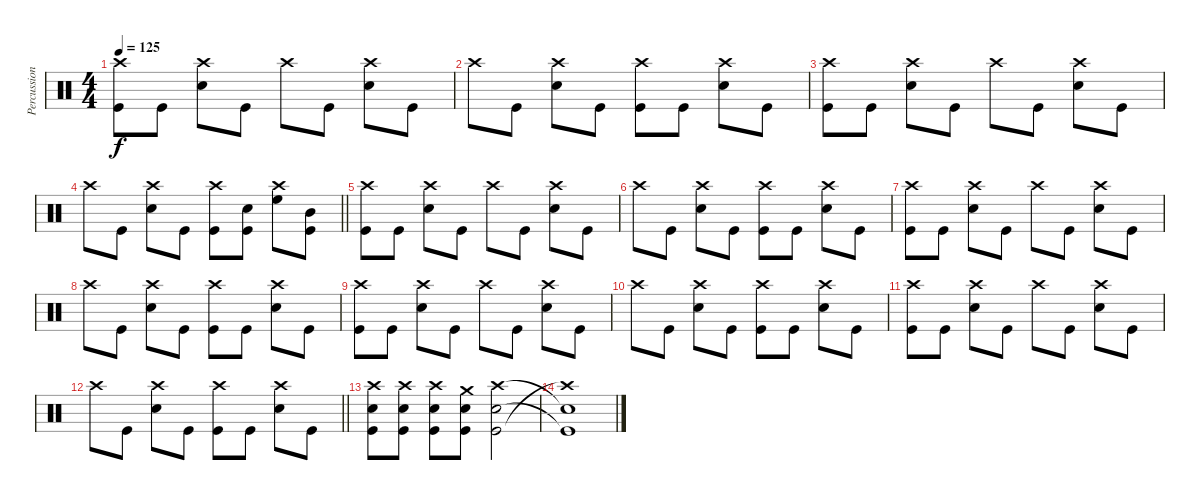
\track ("Percussion" "Percussion") {instrument percussion}
\staff {score}
\articulation defaults
\ts (4 4)
\tempo 125
\clef neutral
\ks c
("Crash high (hit)" "Kick (hit)").8{dy f} "Kick (hit)".8 ("Crash high (hit)" "Snare (hit) 2").8 "Kick (hit)".8 "Crash high (hit)".8 "Kick (hit)".8 ("Snare (hit) 2" "Crash high (hit)").8 "Kick (hit)".8 |
"Crash high (hit)".8 "Kick (hit)".8 ("Crash high (hit)" "Snare (hit) 2").8 "Kick (hit)".8 ("Crash high (hit)" "Kick (hit)").8 "Kick (hit)".8 ("Snare (hit) 2" "Crash high (hit)").8 "Kick (hit)".8 |
("Crash high (hit)" "Kick (hit)").8 "Kick (hit)".8 ("Crash high (hit)" "Snare (hit) 2").8 "Kick (hit)".8 "Crash high (hit)".8 "Kick (hit)".8 ("Snare (hit) 2" "Crash high (hit)").8 "Kick (hit)".8 |
\barLineRight lightlight "Crash high (hit)".8 "Kick (hit)".8
("Crash high (hit)" "Snare (hit) 2").8 "Kick (hit)".8 ("Crash high (hit)" "Kick (hit)").8 ("Snare (hit) 2" "Kick (hit)").8 ("High Floor Tom (hit)" "Crash high (hit)").8 ("Mid Tom (hit)" "Kick (hit)").8 |
("Crash high (hit)" "Kick (hit)").8 "Kick (hit)".8 ("Crash high (hit)" "Snare (hit) 2").8 "Kick (hit)".8 "Crash high (hit)".8 "Kick (hit)".8 ("Snare (hit) 2" "Crash high (hit)").8 "Kick (hit)".8 |
"Crash high (hit)".8 "Kick (hit)".8 ("Crash high (hit)" "Snare (hit) 2").8 "Kick (hit)".8 ("Crash high (hit)" "Kick (hit)").8 "Kick (hit)".8 ("Snare (hit) 2" "Crash high (hit)").8 "Kick (hit)".8 |
("Crash high (hit)" "Kick (hit)").8 "Kick (hit)".8 ("Crash high (hit)" "Snare (hit) 2").8 "Kick (hit)".8 "Crash high (hit)".8 "Kick (hit)".8 ("Snare (hit) 2" "Crash high (hit)").8 "Kick (hit)".8 |
"Crash high (hit)".8 "Kick (hit)".8 ("Crash high (hit)" "Snare (hit) 2").8 "Kick (hit)".8 ("Crash high (hit)" "Kick (hit)").8 "Kick (hit)".8 ("Snare (hit) 2" "Crash high (hit)").8 "Kick (hit)".8 |
("Crash high (hit)" "Kick (hit)").8 "Kick (hit)".8 ("Crash high (hit)" "Snare (hit) 2").8 "Kick (hit)".8 "Crash high (hit)".8 "Kick (hit)".8 ("Snare (hit) 2" "Crash high (hit)").8 "Kick (hit)".8 |
"Crash high (hit)".8 "Kick (hit)".8 ("Crash high (hit)" "Snare (hit) 2").8 "Kick (hit)".8 ("Crash high (hit)" "Kick (hit)").8 "Kick (hit)".8 ("Snare (hit) 2" "Crash high (hit)").8 "Kick (hit)".8 |
("Crash high (hit)" "Kick (hit)").8 "Kick (hit)".8 ("Crash high (hit)" "Snare (hit) 2").8 "Kick (hit)".8 "Crash high (hit)".8 "Kick (hit)".8 ("Snare (hit) 2" "Crash high (hit)").8 "Kick (hit)".8 |
\barLineRight lightlight "Crash high (hit)".8 "Kick (hit)".8
("Crash high (hit)" "Snare (hit) 2").8 "Kick (hit)".8 ("Crash high (hit)" "Kick (hit)").8 "Kick (hit)".8 ("Snare (hit) 2" "Crash high (hit)").8 "Kick (hit)".8 |
("Crash high (hit)" "Snare (hit) 2" "Kick (hit)").8 ("Crash high (hit)" "Snare (hit) 2" "Kick (hit)").8 ("Crash high (hit)" "Snare (hit) 2" "Kick (hit)").8 ("Crash medium (hit)" "Snare (hit) 2" "Kick (hit)").8 ("Crash high (hit)" "Snare (hit) 2" "Kick (hit)").2 |
("Snare (hit) 2"{t} "Kick (hit)"{t} "Crash high (hit)"{t}).1{volume 0}
